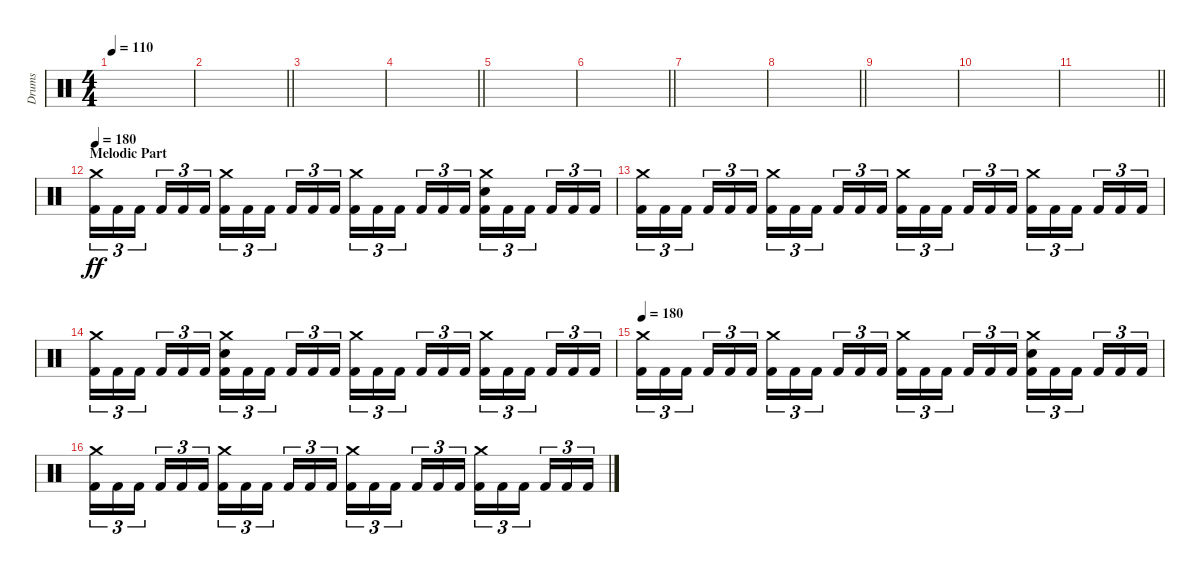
\track ("Drums" "Drums") {instrument percussion}
\staff {score}
\articulation defaults
\ts (4 4)
\tempo 110
\clef neutral
\ks c
|
\barLineRight lightlight
|
|
\barLineRight lightlight
|
|
\barLineRight lightlight
|
|
\barLineRight lightlight
|
|
|
\barLineRight lightlight
|
\section ("" "Melodic Part")
\tempo 180
("Crash medium (hit)" "Kick (hit) 2").16{tu (3 2) dy ff} "Kick (hit) 2".16{tu (3 2)} "Kick (hit) 2".16{tu (3 2) beam splitsecondary} "Kick (hit) 2".16{tu (3 2)} "Kick (hit) 2".16{tu (3 2)} "Kick (hit) 2".16{tu (3 2)} ("Crash medium (hit)" "Kick (hit) 2").16{tu (3 2)} "Kick (hit) 2".16{tu (3 2)} "Kick (hit) 2".16{tu (3 2) beam splitsecondary} "Kick (hit) 2".16{tu (3 2)} "Kick (hit) 2".16{tu (3 2)} "Kick (hit) 2".16{tu (3 2)} ("Crash medium (hit)" "Kick (hit) 2").16{tu (3 2)} "Kick (hit) 2".16{tu (3 2)} "Kick (hit) 2".16{tu (3 2) beam splitsecondary} "Kick (hit) 2".16{tu (3 2)} "Kick (hit) 2".16{tu (3 2)} "Kick (hit) 2".16{tu (3 2)} ("Crash medium (hit)" "Electric Snare (hit)" "Kick (hit) 2").16{tu (3 2)} "Kick (hit) 2".16{tu (3 2)} "Kick (hit) 2".16{tu (3 2) beam splitsecondary} "Kick (hit) 2".16{tu (3 2)} "Kick (hit) 2".16{tu (3 2)} "Kick (hit) 2".16{tu (3 2)} |
("Crash medium (hit)" "Kick (hit) 2").16{tu (3 2)} "Kick (hit) 2".16{tu (3 2)} "Kick (hit) 2".16{tu (3 2) beam splitsecondary} "Kick (hit) 2".16{tu (3 2)} "Kick (hit) 2".16{tu (3 2)} "Kick (hit) 2".16{tu (3 2)} ("Crash medium (hit)" "Kick (hit) 2").16{tu (3 2)} "Kick (hit) 2".16{tu (3 2)} "Kick (hit) 2".16{tu (3 2) beam splitsecondary} "Kick (hit) 2".16{tu (3 2)} "Kick (hit) 2".16{tu (3 2)} "Kick (hit) 2".16{tu (3 2)} ("Crash medium (hit)" "Kick (hit) 2").16{tu (3 2)} "Kick (hit) 2".16{tu (3 2)} "Kick (hit) 2".16{tu (3 2) beam splitsecondary} "Kick (hit) 2".16{tu (3 2)} "Kick (hit) 2".16{tu (3 2)} "Kick (hit) 2".16{tu (3 2)} ("Crash medium (hit)" "Kick (hit) 2").16{tu (3 2)} "Kick (hit) 2".16{tu (3 2)} "Kick (hit) 2".16{tu (3 2) beam splitsecondary} "Kick (hit) 2".16{tu (3 2)} "Kick (hit) 2".16{tu (3 2)} "Kick (hit) 2".16{tu (3 2)} |
("Crash medium (hit)" "Kick (hit) 2").16{tu (3 2)} "Kick (hit) 2".16{tu (3 2)} "Kick (hit) 2".16{tu (3 2) beam splitsecondary} "Kick (hit) 2".16{tu (3 2)} "Kick (hit) 2".16{tu (3 2)} "Kick (hit) 2".16{tu (3 2)} ("Crash medium (hit)" "Electric Snare (hit)" "Kick (hit) 2").16{tu (3 2)} "Kick (hit) 2".16{tu (3 2)} "Kick (hit) 2".16{tu (3 2) beam splitsecondary} "Kick (hit) 2".16{tu (3 2)} "Kick (hit) 2".16{tu (3 2)} "Kick (hit) 2".16{tu (3 2)} ("Crash medium (hit)" "Kick (hit) 2").16{tu (3 2)} "Kick (hit) 2".16{tu (3 2)} "Kick (hit) 2".16{tu (3 2) beam splitsecondary} "Kick (hit) 2".16{tu (3 2)} "Kick (hit) 2".16{tu (3 2)} "Kick (hit) 2".16{tu (3 2)} ("Crash medium (hit)" "Kick (hit) 2").16{tu (3 2)} "Kick (hit) 2".16{tu (3 2)} "Kick (hit) 2".16{tu (3 2) beam splitsecondary} "Kick (hit) 2".16{tu (3 2)} "Kick (hit) 2".16{tu (3 2)} "Kick (hit) 2".16{tu (3 2)} |
\tempo 180
("Crash medium (hit)" "Kick (hit) 2").16{tu (3 2)} "Kick (hit) 2".16{tu (3 2)} "Kick (hit) 2".16{tu (3 2) beam splitsecondary} "Kick (hit) 2".16{tu (3 2)} "Kick (hit) 2".16{tu (3 2)} "Kick (hit) 2".16{tu (3 2)} ("Crash medium (hit)" "Kick (hit) 2").16{tu (3 2)} "Kick (hit) 2".16{tu (3 2)} "Kick (hit) 2".16{tu (3 2) beam splitsecondary} "Kick (hit) 2".16{tu (3 2)} "Kick (hit) 2".16{tu (3 2)} "Kick (hit) 2".16{tu (3 2)} ("Crash medium (hit)" "Kick (hit) 2").16{tu (3 2)} "Kick (hit) 2".16{tu (3 2)} "Kick (hit) 2".16{tu (3 2) beam splitsecondary} "Kick (hit) 2".16{tu (3 2)} "Kick (hit) 2".16{tu (3 2)} "Kick (hit) 2".16{tu (3 2)} ("Crash medium (hit)" "Electric Snare (hit)" "Kick (hit) 2").16{tu (3 2)} "Kick (hit) 2".16{tu (3 2)} "Kick (hit) 2".16{tu (3 2) beam splitsecondary} "Kick (hit) 2".16{tu (3 2)} "Kick (hit) 2".16{tu (3 2)} "Kick (hit) 2".16{tu (3 2)} |
("Crash medium (hit)" "Kick (hit) 2").16{tu (3 2)} "Kick (hit) 2".16{tu (3 2)} "Kick (hit) 2".16{tu (3 2) beam splitsecondary} "Kick (hit) 2".16{tu (3 2)} "Kick (hit) 2".16{tu (3 2)} "Kick (hit) 2".16{tu (3 2)} ("Crash medium (hit)" "Kick (hit) 2").16{tu (3 2)} "Kick (hit) 2".16{tu (3 2)} "Kick (hit) 2".16{tu (3 2) beam splitsecondary} "Kick (hit) 2".16{tu (3 2)} "Kick (hit) 2".16{tu (3 2)} "Kick (hit) 2".16{tu (3 2)} ("Crash medium (hit)" "Kick (hit) 2").16{tu (3 2)} "Kick (hit) 2".16{tu (3 2)} "Kick (hit) 2".16{tu (3 2) beam splitsecondary} "Kick (hit) 2".16{tu (3 2)} "Kick (hit) 2".16{tu (3 2)} "Kick (hit) 2".16{tu (3 2)} ("Crash medium (hit)" "Kick (hit) 2").16{tu (3 2)} "Kick (hit) 2".16{tu (3 2)} "Kick (hit) 2".16{tu (3 2) beam splitsecondary} "Kick (hit) 2".16{tu (3 2)} "Kick (hit) 2".16{tu (3 2)} "Kick (hit) 2".16{tu (3 2)}
